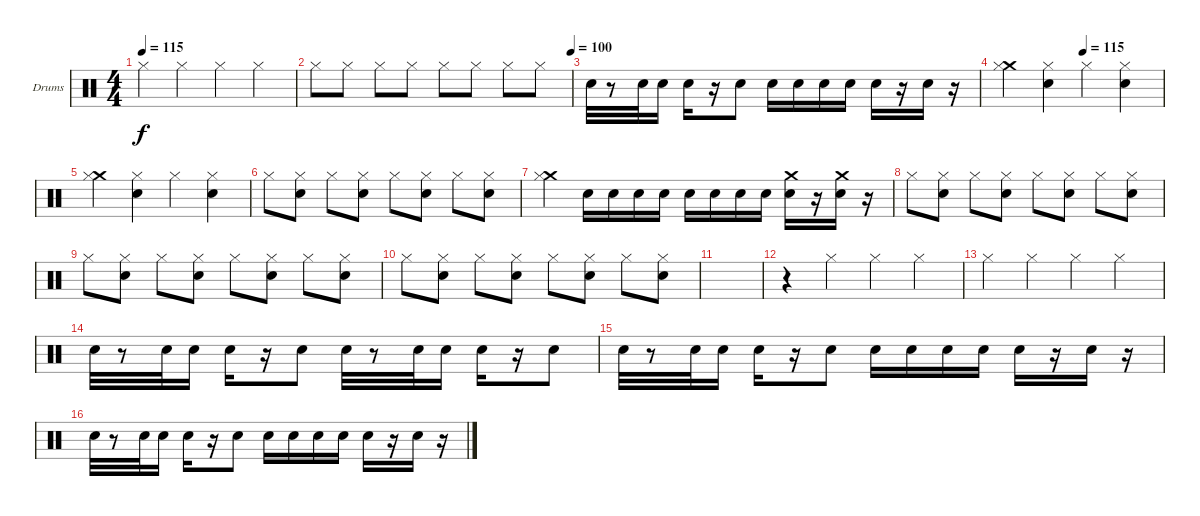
\bracketExtendMode groupsimilarinstruments
\firstSystemTrackNameOrientation horizontal
\otherSystemsTrackNameOrientation horizontal
\track ("Drumkit" "Drums") {instrument percussion}
\staff {score}
\articulation defaults
\ts (4 4)
\beaming (8 2 2 2 2)
\ac
\tempo 115
\clef neutral
\ks c "Hi-Hat (closed)".4{dy f} "Hi-Hat (closed)".4 "Hi-Hat (closed)".4 "Hi-Hat (closed)".4
|
\tempo (100 1)
"Hi-Hat (closed)".8 "Hi-Hat (closed)".8 "Hi-Hat (closed)".8 "Hi-Hat (closed)".8 "Hi-Hat (closed)".8 "Hi-Hat (closed)".8 "Hi-Hat (closed)".8 "Hi-Hat (closed)".8 |
"Snare (hit) 2".32 r.8 "Snare (hit) 2".32 "Snare (hit) 2".16 "Snare (hit) 2".16 r.16 "Snare (hit) 2".8 "Snare (hit) 2".16 "Snare (hit) 2".16 "Snare (hit) 2".16 "Snare (hit) 2".16 "Snare (hit) 2".16 r.16 "Snare (hit) 2".16 r.16 |
\tempo (115 0.5)
("Crash medium (hit)" "Hi-Hat (closed)").4 ("Hi-Hat (closed)" "Snare (hit) 2").4 "Hi-Hat (closed)".4 ("Hi-Hat (closed)" "Snare (hit) 2").4 |
("Crash medium (hit)" "Hi-Hat (closed)").4 ("Hi-Hat (closed)" "Snare (hit) 2").4 "Hi-Hat (closed)".4 ("Hi-Hat (closed)" "Snare (hit) 2").4 |
"Hi-Hat (closed)".8 ("Hi-Hat (closed)" "Snare (hit) 2").8 "Hi-Hat (closed)".8 ("Hi-Hat (closed)" "Snare (hit) 2").8 "Hi-Hat (closed)".8 ("Hi-Hat (closed)" "Snare (hit) 2").8 "Hi-Hat (closed)".8 ("Hi-Hat (closed)" "Snare (hit) 2").8 |
("Crash medium (hit)" "Hi-Hat (closed)").4 "Snare (hit) 2".16 "Snare (hit) 2".16 "Snare (hit) 2".16 "Snare (hit) 2".16 "Snare (hit) 2".16 "Snare (hit) 2".16 "Snare (hit) 2".16 "Snare (hit) 2".16 ("Snare (hit) 2" "Crash medium (hit)").16 r.16 ("Snare (hit) 2" "Crash medium (hit)").16 r.16 |
"Hi-Hat (closed)".8 ("Hi-Hat (closed)" "Snare (hit) 2").8 "Hi-Hat (closed)".8 ("Hi-Hat (closed)" "Snare (hit) 2").8 "Hi-Hat (closed)".8 ("Hi-Hat (closed)" "Snare (hit) 2").8 "Hi-Hat (closed)".8 ("Hi-Hat (closed)" "Snare (hit) 2").8 |
"Hi-Hat (closed)".8 ("Hi-Hat (closed)" "Snare (hit) 2").8 "Hi-Hat (closed)".8 ("Hi-Hat (closed)" "Snare (hit) 2").8 "Hi-Hat (closed)".8 ("Hi-Hat (closed)" "Snare (hit) 2").8 "Hi-Hat (closed)".8 ("Hi-Hat (closed)" "Snare (hit) 2").8 |
"Hi-Hat (closed)".8 ("Hi-Hat (closed)" "Snare (hit) 2").8 "Hi-Hat (closed)".8 ("Hi-Hat (closed)" "Snare (hit) 2").8 "Hi-Hat (closed)".8 ("Hi-Hat (closed)" "Snare (hit) 2").8 "Hi-Hat (closed)".8 ("Hi-Hat (closed)" "Snare (hit) 2").8 |
|
r.4 "Hi-Hat (closed)".4 "Hi-Hat (closed)".4 "Hi-Hat (closed)".4 |
"Hi-Hat (closed)".4 "Hi-Hat (closed)".4 "Hi-Hat (closed)".4 "Hi-Hat (closed)".4 |
"Snare (hit) 2".32 r.8 "Snare (hit) 2".32 "Snare (hit) 2".16 "Snare (hit) 2".16 r.16 "Snare (hit) 2".8 "Snare (hit) 2".32 r.8 "Snare (hit) 2".32 "Snare (hit) 2".16 "Snare (hit) 2".16 r.16 "Snare (hit) 2".8 |
"Snare (hit) 2".32 r.8 "Snare (hit) 2".32 "Snare (hit) 2".16 "Snare (hit) 2".16 r.16 "Snare (hit) 2".8 "Snare (hit) 2".16 "Snare (hit) 2".16 "Snare (hit) 2".16 "Snare (hit) 2".16 "Snare (hit) 2".16 r.16 "Snare (hit) 2".16 r.16 |
"Snare (hit) 2".32 r.8 "Snare (hit) 2".32 "Snare (hit) 2".16 "Snare (hit) 2".16 r.16 "Snare (hit) 2".8 "Snare (hit) 2".16 "Snare (hit) 2".16 "Snare (hit) 2".16 "Snare (hit) 2".16 "Snare (hit) 2".16 r.16 "Snare (hit) 2".16 r.16
